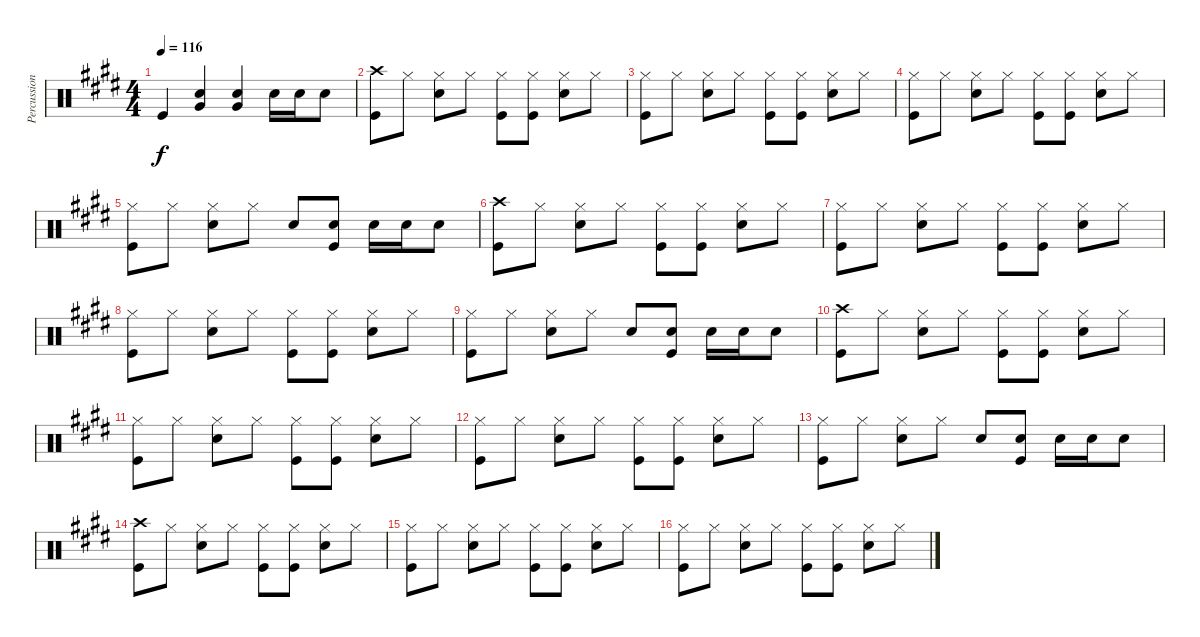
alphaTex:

\track ("Percussion" "Percussion") {instrument percussion}
\staff {score}
\articulation defaults
\ts (4 4)
\tempo 116
\clef neutral
\ks e "Kick (hit)".4{dy f}
("Very Low Tom (hit)" "Snare (hit) 2").4 ("Very Low Tom (hit)" "Snare (hit) 2").4 "Snare (hit) 2".16 "Snare (hit) 2".16 "Snare (hit) 2".8 |
("Crash high (hit)" "Kick (hit)").8 "Hi-Hat (closed)".8 ("Hi-Hat (closed)" "Snare (hit) 2").8 "Hi-Hat (closed)".8 ("Hi-Hat (closed)" "Kick (hit)").8 ("Hi-Hat (closed)" "Kick (hit)").8 ("Hi-Hat (closed)" "Snare (hit) 2").8 "Hi-Hat (closed)".8 |
("Hi-Hat (closed)" "Kick (hit)").8 "Hi-Hat (closed)".8 ("Hi-Hat (closed)" "Snare (hit) 2").8 "Hi-Hat (closed)".8 ("Hi-Hat (closed)" "Kick (hit)").8 ("Hi-Hat (closed)" "Kick (hit)").8 ("Hi-Hat (closed)" "Snare (hit) 2").8 "Hi-Hat (closed)".8 |
("Hi-Hat (closed)" "Kick (hit)").8 "Hi-Hat (closed)".8 ("Hi-Hat (closed)" "Snare (hit) 2").8 "Hi-Hat (closed)".8 ("Hi-Hat (closed)" "Kick (hit)").8 ("Hi-Hat (closed)" "Kick (hit)").8 ("Hi-Hat (closed)" "Snare (hit) 2").8 "Hi-Hat (closed)".8 |
("Hi-Hat (closed)" "Kick (hit)").8 "Hi-Hat (closed)".8 ("Hi-Hat (closed)" "Snare (hit) 2").8 "Hi-Hat (closed)".8 "Snare (hit) 2".8 ("Snare (hit) 2" "Kick (hit)").8 "Snare (hit) 2".16 "Snare (hit) 2".16 "Snare (hit) 2".8 |
("Crash high (hit)" "Kick (hit)").8 "Hi-Hat (closed)".8 ("Hi-Hat (closed)" "Snare (hit) 2").8 "Hi-Hat (closed)".8 ("Hi-Hat (closed)" "Kick (hit)").8 ("Hi-Hat (closed)" "Kick (hit)").8 ("Hi-Hat (closed)" "Snare (hit) 2").8 "Hi-Hat (closed)".8 |
("Hi-Hat (closed)" "Kick (hit)").8 "Hi-Hat (closed)".8 ("Hi-Hat (closed)" "Snare (hit) 2").8 "Hi-Hat (closed)".8 ("Hi-Hat (closed)" "Kick (hit)").8 ("Hi-Hat (closed)" "Kick (hit)").8 ("Hi-Hat (closed)" "Snare (hit) 2").8 "Hi-Hat (closed)".8 |
("Hi-Hat (closed)" "Kick (hit)").8 "Hi-Hat (closed)".8 ("Hi-Hat (closed)" "Snare (hit) 2").8 "Hi-Hat (closed)".8 ("Hi-Hat (closed)" "Kick (hit)").8 ("Hi-Hat (closed)" "Kick (hit)").8 ("Hi-Hat (closed)" "Snare (hit) 2").8 "Hi-Hat (closed)".8 |
("Hi-Hat (closed)" "Kick (hit)").8 "Hi-Hat (closed)".8 ("Hi-Hat (closed)" "Snare (hit) 2").8 "Hi-Hat (closed)".8 "Snare (hit) 2".8 ("Snare (hit) 2" "Kick (hit)").8 "Snare (hit) 2".16 "Snare (hit) 2".16 "Snare (hit) 2".8 |
("Crash high (hit)" "Kick (hit)").8 "Hi-Hat (closed)".8 ("Hi-Hat (closed)" "Snare (hit) 2").8 "Hi-Hat (closed)".8 ("Hi-Hat (closed)" "Kick (hit)").8 ("Hi-Hat (closed)" "Kick (hit)").8 ("Hi-Hat (closed)" "Snare (hit) 2").8 "Hi-Hat (closed)".8 |
("Hi-Hat (closed)" "Kick (hit)").8 "Hi-Hat (closed)".8 ("Hi-Hat (closed)" "Snare (hit) 2").8 "Hi-Hat (closed)".8 ("Hi-Hat (closed)" "Kick (hit)").8 ("Hi-Hat (closed)" "Kick (hit)").8 ("Hi-Hat (closed)" "Snare (hit) 2").8 "Hi-Hat (closed)".8 |
("Hi-Hat (closed)" "Kick (hit)").8 "Hi-Hat (closed)".8 ("Hi-Hat (closed)" "Snare (hit) 2").8 "Hi-Hat (closed)".8 ("Hi-Hat (closed)" "Kick (hit)").8 ("Hi-Hat (closed)" "Kick (hit)").8 ("Hi-Hat (closed)" "Snare (hit) 2").8 "Hi-Hat (closed)".8 |
("Hi-Hat (closed)" "Kick (hit)").8 "Hi-Hat (closed)".8 ("Hi-Hat (closed)" "Snare (hit) 2").8 "Hi-Hat (closed)".8 "Snare (hit) 2".8 ("Snare (hit) 2" "Kick (hit)").8 "Snare (hit) 2".16 "Snare (hit) 2".16 "Snare (hit) 2".8 |
("Crash high (hit)" "Kick (hit)").8 "Hi-Hat (closed)".8 ("Hi-Hat (closed)" "Snare (hit) 2").8 "Hi-Hat (closed)".8 ("Hi-Hat (closed)" "Kick (hit)").8 ("Hi-Hat (closed)" "Kick (hit)").8 ("Hi-Hat (closed)" "Snare (hit) 2").8 "Hi-Hat (closed)".8 |
("Hi-Hat (closed)" "Kick (hit)").8 "Hi-Hat (closed)".8 ("Hi-Hat (closed)" "Snare (hit) 2").8 "Hi-Hat (closed)".8 ("Hi-Hat (closed)" "Kick (hit)").8 ("Hi-Hat (closed)" "Kick (hit)").8 ("Hi-Hat (closed)" "Snare (hit) 2").8 "Hi-Hat (closed)".8 |
("Hi-Hat (closed)" "Kick (hit)").8 "Hi-Hat (closed)".8 ("Hi-Hat (closed)" "Snare (hit) 2").8 "Hi-Hat (closed)".8 ("Hi-Hat (closed)" "Kick (hit)").8 ("Hi-Hat (closed)" "Kick (hit)").8 ("Hi-Hat (closed)" "Snare (hit) 2").8 "Hi-Hat (closed)".8
